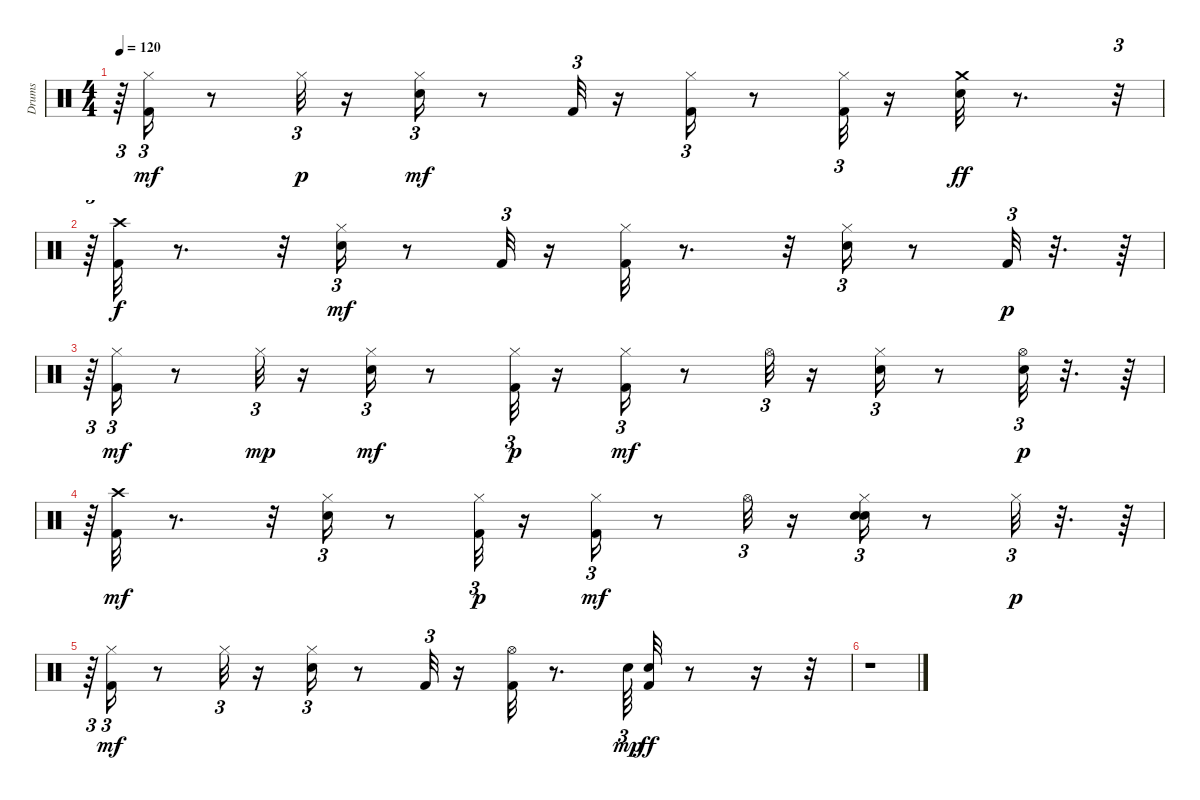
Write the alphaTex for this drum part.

\track ("Drums" "Drums") {instrument percussion}
\staff {score}
\articulation defaults
\ts (4 4)
\tempo 120
\clef neutral
\ks c
r.64{tu (3 2) dy p} ("Kick (hit) 2" "Hi-Hat (closed)").16{tu (3 2) dy mf} r.8 "Hi-Hat (closed)".32{tu (3 2) dy p} r.16 ("Electric Snare (hit)" "Hi-Hat (closed)").16{tu (3 2) dy mf} r.8 "Kick (hit) 2".32{tu (3 2)} r.16 ("Kick (hit) 2" "Hi-Hat (closed)").16{tu (3 2)} r.8 ("Kick (hit) 2" "Hi-Hat (closed)").32{tu (3 2)} r.16 ("Electric Snare (hit)" "Crash medium (hit)").32{dy ff} r.8{d} r.32{tu (3 2)} |
r.64{tu (3 2)} ("Kick (hit) 2" "Crash high (hit)").32{dy f} r.8{d} r.32 ("Electric Snare (hit)" "Hi-Hat (closed)").16{tu (3 2) dy mf} r.8 "Kick (hit) 2".32{tu (3 2)} r.16 ("Kick (hit) 2" "Hi-Hat (closed)").32 r.8{d} r.32 ("Electric Snare (hit)" "Hi-Hat (closed)").16{tu (3 2)} r.8 "Kick (hit) 2".32{tu (3 2) dy p} r.32{d} r.64 |
r.64{tu (3 2)} ("Kick (hit) 2" "Hi-Hat (closed)").16{tu (3 2) dy mf} r.8 "Hi-Hat (closed)".32{tu (3 2) dy mp} r.16 ("Electric Snare (hit)" "Hi-Hat (closed)").16{tu (3 2) dy mf} r.8 ("Kick (hit) 2" "Hi-Hat (closed)").32{tu (3 2) dy p} r.16 ("Kick (hit) 2" "Hi-Hat (closed)").16{tu (3 2) dy mf} r.8 "Hi-Hat (open)".32{tu (3 2)} r.16 ("Electric Snare (hit)" "Hi-Hat (closed)").16{tu (3 2)} r.8 ("Electric Snare (hit)" "Hi-Hat (open)").32{tu (3 2) dy p} r.32{d} r.64 |
r.64{tu (3 2)} ("Kick (hit) 2" "Crash high (hit)").32{dy mf} r.8{d} r.32 ("Electric Snare (hit)" "Hi-Hat (closed)").16{tu (3 2)} r.8 ("Kick (hit) 2" "Hi-Hat (closed)").32{tu (3 2) dy p} r.16 ("Kick (hit) 2" "Hi-Hat (closed)").16{tu (3 2) dy mf} r.8 "Hi-Hat (open)".32{tu (3 2)} r.16 ("Hand Clap (hit)" "Electric Snare (hit)" "Hi-Hat (closed)").16{tu (3 2)} r.8 "Hi-Hat (closed)".32{tu (3 2) dy p} r.32{d} r.64 |
r.64{tu (3 2)} ("Kick (hit) 2" "Hi-Hat (closed)").16{tu (3 2) dy mf} r.8 "Hi-Hat (closed)".32{tu (3 2)} r.16 ("Electric Snare (hit)" "Hi-Hat (closed)").16{tu (3 2)} r.8 "Kick (hit) 2".32{tu (3 2)} r.16 ("Kick (hit) 2" "Hi-Hat (open)").32 r.8{d} "Electric Snare (hit)".64{tu (3 2) dy mp} ("Kick (hit) 2" "Electric Snare (hit)").32{dy ff} r.8 r.16 r.32 |
r.1
